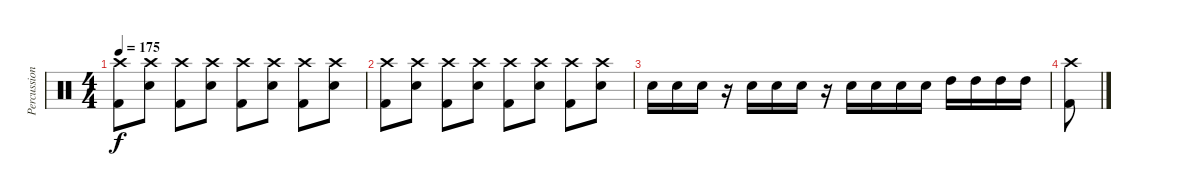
\track ("Percussion" "Percussion") {instrument percussion}
\staff {score}
\articulation defaults
\ts (4 4)
\tempo 175
\clef neutral
\ks c
("Crash high (hit)" "Kick (hit) 2").8{dy f} ("Crash high (hit)" "Snare (hit) 2").8 ("Crash high (hit)" "Kick (hit) 2").8 ("Crash high (hit)" "Snare (hit) 2").8 ("Crash high (hit)" "Kick (hit) 2").8 ("Crash high (hit)" "Snare (hit) 2").8 ("Crash high (hit)" "Kick (hit) 2").8 ("Crash high (hit)" "Snare (hit) 2").8 |
("Crash high (hit)" "Kick (hit) 2").8 ("Crash high (hit)" "Snare (hit) 2").8 ("Crash high (hit)" "Kick (hit) 2").8 ("Crash high (hit)" "Snare (hit) 2").8 ("Crash high (hit)" "Kick (hit) 2").8 ("Crash high (hit)" "Snare (hit) 2").8 ("Crash high (hit)" "Kick (hit) 2").8 ("Crash high (hit)" "Snare (hit) 2").8 |
"Snare (hit) 2".16 "Snare (hit) 2".16 "Snare (hit) 2".16 r.16 "Snare (hit) 2".16 "Snare (hit) 2".16 "Snare (hit) 2".16 r.16 "Snare (hit) 2".16 "Snare (hit) 2".16 "Snare (hit) 2".16 "Snare (hit) 2".16 "High Tom (hit)".16 "High Tom (hit)".16 "High Tom (hit)".16 "High Tom (hit)".16 |
("Crash high (hit)" "Kick (hit) 2").8
